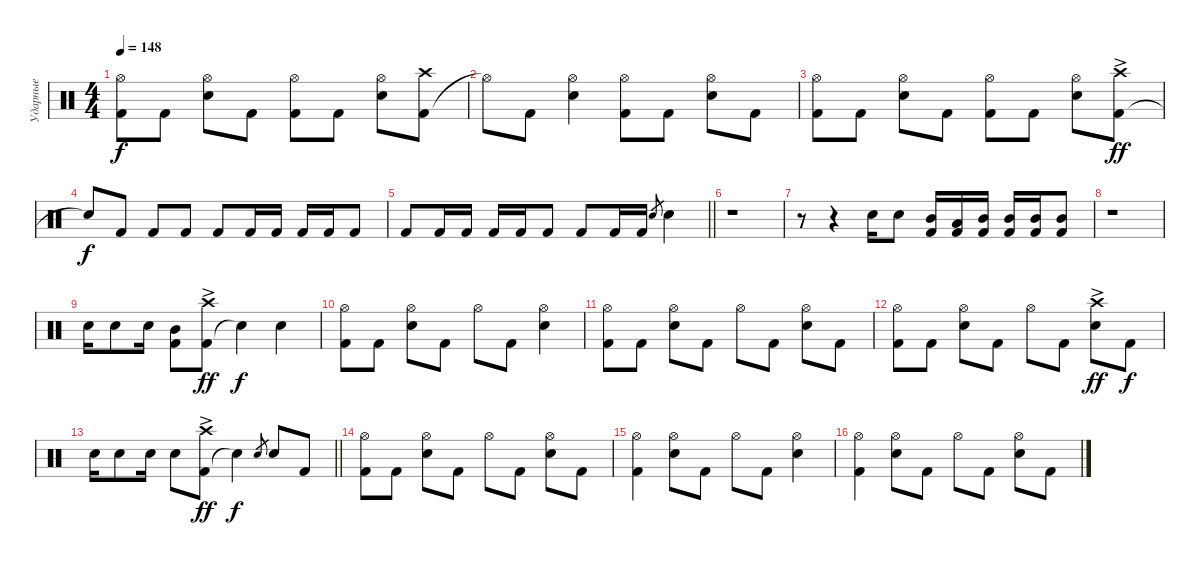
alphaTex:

\track ("Ударные" "Ударные") {instrument percussion}
\staff {score}
\articulation defaults
\ts (4 4)
\tempo 148
\clef neutral
\ks c
("Kick (hit) 2" "Hi-Hat (open)").8{dy f} "Kick (hit) 2".8 ("Snare (hit) 2" "Hi-Hat (open)").8 "Kick (hit) 2".8 ("Kick (hit) 2" "Hi-Hat (open)").8 "Kick (hit) 2".8 ("Snare (hit) 2" "Hi-Hat (open)").8 ("Kick (hit) 2" "Crash high (hit)").8 |
"Hi-Hat (open)"{t}.8 "Kick (hit) 2".8 ("Snare (hit) 2" "Hi-Hat (open)").4 ("Kick (hit) 2" "Hi-Hat (open)").8 "Kick (hit) 2".8 ("Snare (hit) 2" "Hi-Hat (open)").8 "Kick (hit) 2".8 |
("Kick (hit) 2" "Hi-Hat (open)").8 "Kick (hit) 2".8 ("Snare (hit) 2" "Hi-Hat (open)").8 "Kick (hit) 2".8 ("Kick (hit) 2" "Hi-Hat (open)").8 "Kick (hit) 2".8 ("Snare (hit) 2" "Hi-Hat (open)").8 ("Kick (hit) 2" "Crash high (hit)"{ac}).8{dy ff} |
"Snare (hit)"{t}.8{dy f} "Kick (hit) 2".8 "Kick (hit) 2".8 "Kick (hit) 2".8 "Kick (hit) 2".8 "Kick (hit) 2".16 "Kick (hit) 2".16 "Kick (hit) 2".16 "Kick (hit) 2".16 "Kick (hit) 2".8 |
\barLineRight lightlight "Kick (hit) 2".8 "Kick (hit) 2".16 "Kick (hit) 2".16 "Kick (hit) 2".16 "Kick (hit) 2".16 "Kick (hit) 2".8 "Kick (hit) 2".8 "Kick (hit) 2".16 "Kick (hit) 2".16 "Snare (hit) 2".8{gr} "Snare (hit) 2".4
|
r.1 |
r.8 r.4 "Snare (hit) 2".16 "Electric Snare (hit)".8 ("Mid Tom (hit)" "Kick (hit) 2").16 ("Low Tom (hit)" "Kick (hit) 2").16 ("Mid Tom (hit)" "Kick (hit) 2").16 ("Mid Tom (hit)" "Kick (hit) 2").16 ("Mid Tom (hit)" "Kick (hit) 2").16 ("Mid Tom (hit)" "Kick (hit) 2").8 |
r.1 |
"Snare (hit) 2".16 "Electric Snare (hit)".8 "Electric Snare (hit)".16 ("Kick (hit) 2" "Mid Tom (hit)").8 ("Kick (hit) 2" "Crash high (hit)"{ac}).8{dy ff} "Snare (hit)"{t}.4{dy f} "Snare (hit) 2".4 |
("Kick (hit) 2" "Hi-Hat (open)").8 "Kick (hit) 2".8 ("Snare (hit) 2" "Hi-Hat (open)").8 "Kick (hit) 2".8 "Hi-Hat (open)".8 "Kick (hit) 2".8 ("Snare (hit) 2" "Hi-Hat (open)").4 |
("Kick (hit) 2" "Hi-Hat (open)").8 "Kick (hit) 2".8 ("Snare (hit) 2" "Hi-Hat (open)").8 "Kick (hit) 2".8 "Hi-Hat (open)".8 "Kick (hit) 2".8 ("Snare (hit) 2" "Hi-Hat (open)").8 "Kick (hit) 2".8 |
("Kick (hit) 2" "Hi-Hat (open)").8 "Kick (hit) 2".8 ("Snare (hit) 2" "Hi-Hat (open)").8 "Kick (hit) 2".8 "Hi-Hat (open)".8 "Kick (hit) 2".8 ("Snare (hit) 2" "Crash high (hit)"{ac}).8{dy ff} "Kick (hit) 2".8{dy f} |
\barLineRight lightlight "Snare (hit) 2".16 "Snare (hit) 2".8 "Snare (hit) 2".16 "Snare (hit) 2".8
("Kick (hit) 2" "Crash high (hit)"{ac}).8{dy ff} "Snare (hit)"{t}.4{dy f} "Snare (hit) 2".8{gr} "Snare (hit) 2".8 "Kick (hit) 2".8 |
("Kick (hit) 2" "Hi-Hat (open)").8 "Kick (hit) 2".8 ("Snare (hit) 2" "Hi-Hat (open)").8 "Kick (hit) 2".8 "Hi-Hat (open)".8 "Kick (hit) 2".8 ("Snare (hit) 2" "Hi-Hat (open)").8 "Kick (hit) 2".8 |
("Kick (hit) 2" "Hi-Hat (open)").4 ("Snare (hit) 2" "Hi-Hat (open)").8 "Kick (hit) 2".8 "Hi-Hat (open)".8 "Kick (hit) 2".8 ("Snare (hit) 2" "Hi-Hat (open)").4 |
("Kick (hit) 2" "Hi-Hat (open)").4 ("Snare (hit) 2" "Hi-Hat (open)").8 "Kick (hit) 2".8 "Hi-Hat (open)".8 "Kick (hit) 2".8 ("Snare (hit) 2" "Hi-Hat (open)").8 "Kick (hit) 2".8
